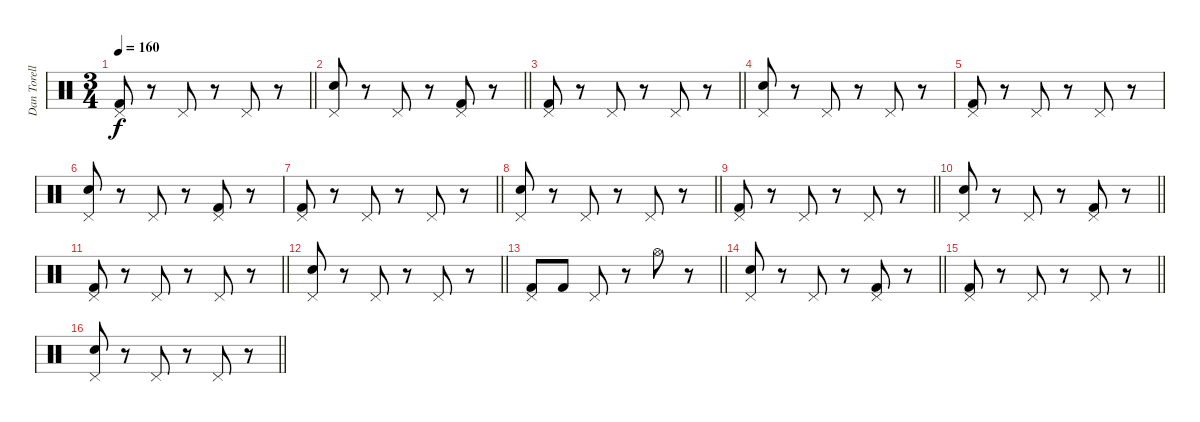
\track ("Dan Torelli - Drums" "Dan Torell") {instrument percussion}
\staff {score}
\articulation defaults
\ts (3 4)
\tempo 160
\clef neutral
\barLineRight lightlight
\ks c
("Pedal Hi-Hat (hit)" "Kick (hit) 2").8{dy f} r.8 "Pedal Hi-Hat (hit)".8 r.8 "Pedal Hi-Hat (hit)".8 r.8 |
\barLineRight lightlight
("Pedal Hi-Hat (hit)" "Electric Snare (hit)").8 r.8 "Pedal Hi-Hat (hit)".8 r.8 ("Pedal Hi-Hat (hit)" "Kick (hit) 2").8 r.8 |
\barLineRight lightlight
("Pedal Hi-Hat (hit)" "Kick (hit) 2").8 r.8 "Pedal Hi-Hat (hit)".8 r.8 "Pedal Hi-Hat (hit)".8 r.8 |
("Pedal Hi-Hat (hit)" "Electric Snare (hit)").8 r.8 "Pedal Hi-Hat (hit)".8 r.8 "Pedal Hi-Hat (hit)".8 r.8 |
("Pedal Hi-Hat (hit)" "Kick (hit) 2").8 r.8 "Pedal Hi-Hat (hit)".8 r.8 "Pedal Hi-Hat (hit)".8 r.8 |
("Pedal Hi-Hat (hit)" "Electric Snare (hit)").8 r.8 "Pedal Hi-Hat (hit)".8 r.8 ("Pedal Hi-Hat (hit)" "Kick (hit) 2").8 r.8 |
\barLineRight lightlight
("Pedal Hi-Hat (hit)" "Kick (hit) 2").8 r.8 "Pedal Hi-Hat (hit)".8 r.8 "Pedal Hi-Hat (hit)".8 r.8 |
\barLineRight lightlight
("Pedal Hi-Hat (hit)" "Electric Snare (hit)").8 r.8 "Pedal Hi-Hat (hit)".8 r.8 "Pedal Hi-Hat (hit)".8 r.8 |
\barLineRight lightlight
("Pedal Hi-Hat (hit)" "Kick (hit) 2").8 r.8 "Pedal Hi-Hat (hit)".8 r.8 "Pedal Hi-Hat (hit)".8 r.8 |
\barLineRight lightlight
("Pedal Hi-Hat (hit)" "Electric Snare (hit)").8 r.8 "Pedal Hi-Hat (hit)".8 r.8 ("Pedal Hi-Hat (hit)" "Kick (hit) 2").8 r.8 |
\barLineRight lightlight
("Pedal Hi-Hat (hit)" "Kick (hit) 2").8 r.8 "Pedal Hi-Hat (hit)".8 r.8 "Pedal Hi-Hat (hit)".8 r.8 |
\barLineRight lightlight
("Pedal Hi-Hat (hit)" "Electric Snare (hit)").8 r.8 "Pedal Hi-Hat (hit)".8 r.8 "Pedal Hi-Hat (hit)".8 r.8 |
\barLineRight lightlight
("Pedal Hi-Hat (hit)" "Kick (hit) 2").8 "Kick (hit) 2".8 "Pedal Hi-Hat (hit)".8 r.8 "Hi-Hat (open)".8 r.8 |
\barLineRight lightlight
("Pedal Hi-Hat (hit)" "Electric Snare (hit)").8 r.8 "Pedal Hi-Hat (hit)".8 r.8 ("Pedal Hi-Hat (hit)" "Kick (hit) 2").8 r.8 |
\barLineRight lightlight
("Pedal Hi-Hat (hit)" "Kick (hit) 2").8 r.8 "Pedal Hi-Hat (hit)".8 r.8 "Pedal Hi-Hat (hit)".8 r.8 |
\barLineRight lightlight
("Pedal Hi-Hat (hit)" "Electric Snare (hit)").8 r.8 "Pedal Hi-Hat (hit)".8 r.8 "Pedal Hi-Hat (hit)".8 r.8
